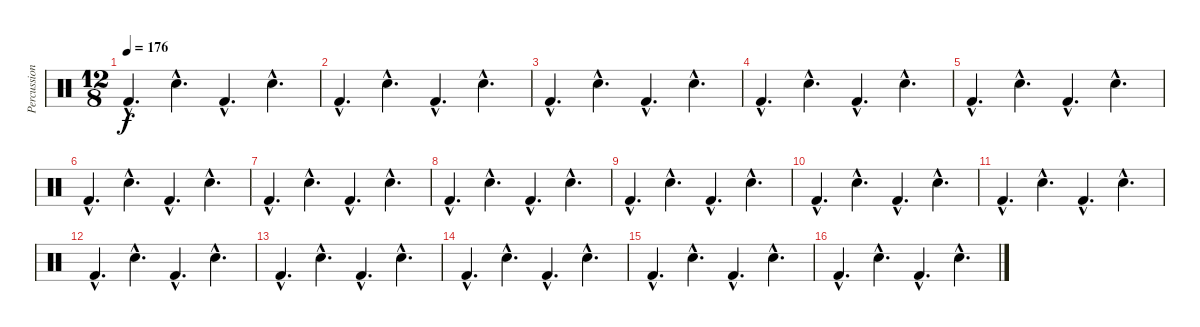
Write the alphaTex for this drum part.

\track ("Percussion" "Percussion") {instrument percussion}
\staff {score}
\articulation defaults
\ts (12 8)
\tempo 176
\clef neutral
\ks c "Kick (hit) 2"{hac}.4{d dy f} "Snare (hit) 2"{hac}.4{d} "Kick (hit) 2"{hac}.4{d} "Snare (hit) 2"{hac}.4{d}
|
"Kick (hit) 2"{hac}.4{d} "Snare (hit) 2"{hac}.4{d} "Kick (hit) 2"{hac}.4{d} "Snare (hit) 2"{hac}.4{d} |
"Kick (hit) 2"{hac}.4{d} "Snare (hit) 2"{hac}.4{d} "Kick (hit) 2"{hac}.4{d} "Snare (hit) 2"{hac}.4{d} |
"Kick (hit) 2"{hac}.4{d} "Snare (hit) 2"{hac}.4{d} "Kick (hit) 2"{hac}.4{d} "Snare (hit) 2"{hac}.4{d} |
"Kick (hit) 2"{hac}.4{d} "Snare (hit) 2"{hac}.4{d} "Kick (hit) 2"{hac}.4{d} "Snare (hit) 2"{hac}.4{d} |
"Kick (hit) 2"{hac}.4{d} "Snare (hit) 2"{hac}.4{d} "Kick (hit) 2"{hac}.4{d} "Snare (hit) 2"{hac}.4{d} |
"Kick (hit) 2"{hac}.4{d} "Snare (hit) 2"{hac}.4{d} "Kick (hit) 2"{hac}.4{d} "Snare (hit) 2"{hac}.4{d} |
"Kick (hit) 2"{hac}.4{d} "Snare (hit) 2"{hac}.4{d} "Kick (hit) 2"{hac}.4{d} "Snare (hit) 2"{hac}.4{d} |
"Kick (hit) 2"{hac}.4{d} "Snare (hit) 2"{hac}.4{d} "Kick (hit) 2"{hac}.4{d} "Snare (hit) 2"{hac}.4{d} |
"Kick (hit) 2"{hac}.4{d} "Snare (hit) 2"{hac}.4{d} "Kick (hit) 2"{hac}.4{d} "Snare (hit) 2"{hac}.4{d} |
"Kick (hit) 2"{hac}.4{d} "Snare (hit) 2"{hac}.4{d} "Kick (hit) 2"{hac}.4{d} "Snare (hit) 2"{hac}.4{d} |
"Kick (hit) 2"{hac}.4{d} "Snare (hit) 2"{hac}.4{d} "Kick (hit) 2"{hac}.4{d} "Snare (hit) 2"{hac}.4{d} |
"Kick (hit) 2"{hac}.4{d} "Snare (hit) 2"{hac}.4{d} "Kick (hit) 2"{hac}.4{d} "Snare (hit) 2"{hac}.4{d} |
"Kick (hit) 2"{hac}.4{d} "Snare (hit) 2"{hac}.4{d} "Kick (hit) 2"{hac}.4{d} "Snare (hit) 2"{hac}.4{d} |
"Kick (hit) 2"{hac}.4{d} "Snare (hit) 2"{hac}.4{d} "Kick (hit) 2"{hac}.4{d} "Snare (hit) 2"{hac}.4{d} |
"Kick (hit) 2"{hac}.4{d} "Snare (hit) 2"{hac}.4{d} "Kick (hit) 2"{hac}.4{d} "Snare (hit) 2"{hac}.4{d}
